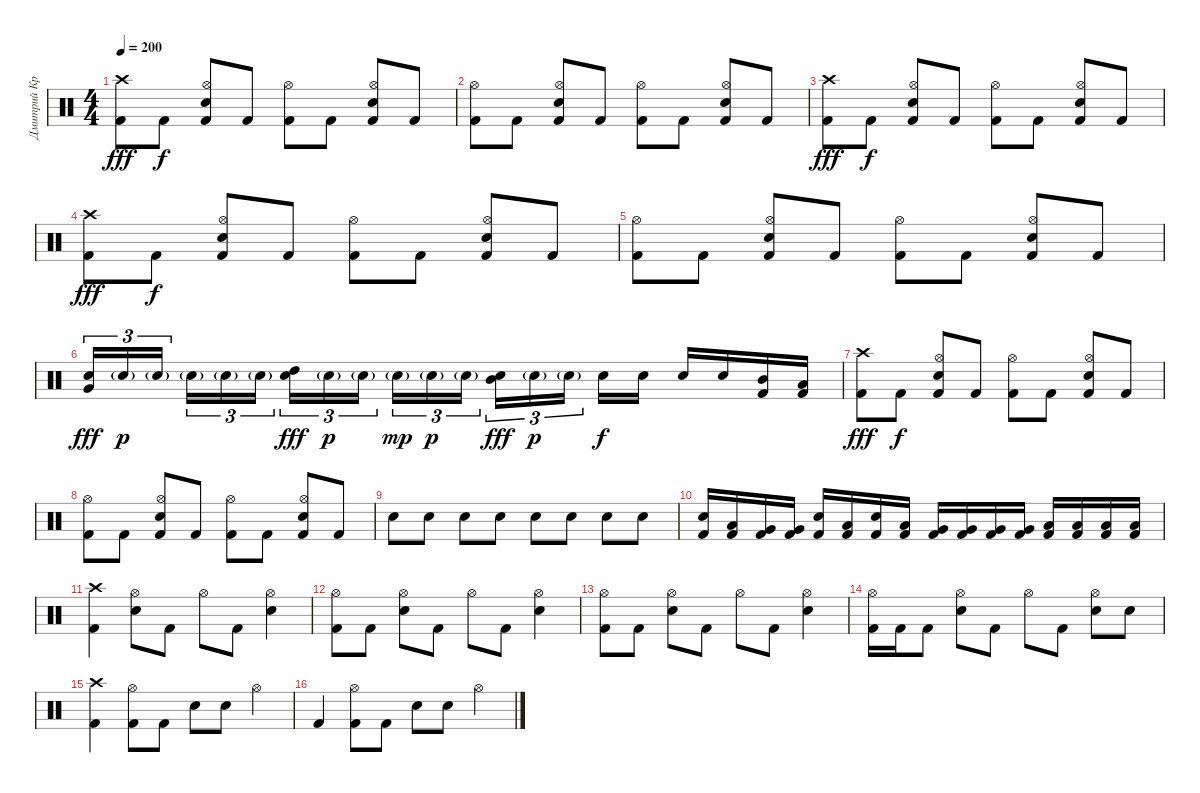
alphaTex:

\track ("Дмитрий Кривенков" "Дмитрий Кр") {instrument percussion}
\staff {score}
\articulation defaults
\ts (4 4)
\tempo 200
\clef neutral
\ks c
("Crash high (hit)" "Kick (hit) 2").8{dy fff} "Kick (hit) 2".8{dy f} ("Hi-Hat (open)" "Electric Snare (hit)" "Kick (hit) 2").8 "Kick (hit) 2".8 ("Hi-Hat (open)" "Kick (hit) 2").8 "Kick (hit) 2".8 ("Hi-Hat (open)" "Electric Snare (hit)" "Kick (hit) 2").8 "Kick (hit) 2".8 |
("Hi-Hat (open)" "Kick (hit) 2").8 "Kick (hit) 2".8 ("Hi-Hat (open)" "Electric Snare (hit)" "Kick (hit) 2").8 "Kick (hit) 2".8 ("Hi-Hat (open)" "Kick (hit) 2").8 "Kick (hit) 2".8 ("Hi-Hat (open)" "Electric Snare (hit)" "Kick (hit) 2").8 "Kick (hit) 2".8 |
("Crash high (hit)" "Kick (hit) 2").8{dy fff} "Kick (hit) 2".8{dy f} ("Hi-Hat (open)" "Electric Snare (hit)" "Kick (hit) 2").8 "Kick (hit) 2".8 ("Hi-Hat (open)" "Kick (hit) 2").8 "Kick (hit) 2".8 ("Hi-Hat (open)" "Electric Snare (hit)" "Kick (hit) 2").8 "Kick (hit) 2".8 |
("Crash high (hit)" "Kick (hit) 2").8{dy fff} "Kick (hit) 2".8{dy f} ("Hi-Hat (open)" "Electric Snare (hit)" "Kick (hit) 2").8 "Kick (hit) 2".8 ("Hi-Hat (open)" "Kick (hit) 2").8 "Kick (hit) 2".8 ("Hi-Hat (open)" "Electric Snare (hit)" "Kick (hit) 2").8 "Kick (hit) 2".8 |
("Hi-Hat (open)" "Kick (hit) 2").8 "Kick (hit) 2".8 ("Hi-Hat (open)" "Electric Snare (hit)" "Kick (hit) 2").8 "Kick (hit) 2".8 ("Hi-Hat (open)" "Kick (hit) 2").8 "Kick (hit) 2".8 ("Hi-Hat (open)" "Electric Snare (hit)" "Kick (hit) 2").8 "Kick (hit) 2".8 |
("Electric Snare (hit)" "Very Low Tom (hit)").16{tu (3 2) dy fff} "Electric Snare (hit)"{g}.16{tu (3 2) dy p} "Electric Snare (hit)"{g}.16{tu (3 2) beam splitsecondary} "Electric Snare (hit)"{g}.16{tu (3 2)} "Electric Snare (hit)"{g}.16{tu (3 2)} "Electric Snare (hit)"{g}.16{tu (3 2)} ("High Tom (hit)" "Electric Snare (hit)").16{tu (3 2) dy fff} "Electric Snare (hit)"{g}.16{tu (3 2) dy p} "Electric Snare (hit)"{g}.16{tu (3 2) beam splitsecondary} "Electric Snare (hit)"{g}.16{tu (3 2) dy mp} "Electric Snare (hit)"{g}.16{tu (3 2) dy p} "Electric Snare (hit)"{g}.16{tu (3 2)} ("Mid Tom (hit)" "Electric Snare (hit)").16{tu (3 2) dy fff} "Electric Snare (hit)"{g}.16{tu (3 2) dy p} "Electric Snare (hit)"{g}.16{tu (3 2) beam splitsecondary} "Electric Snare (hit)".16{dy f} "Electric Snare (hit)".16 "Electric Snare (hit)".16 "Electric Snare (hit)".16 ("Mid Tom (hit)" "Kick (hit) 2").16 ("Low Tom (hit)" "Kick (hit) 2").16 |
("Crash high (hit)" "Kick (hit) 2").8{dy fff} "Kick (hit) 2".8{dy f} ("Hi-Hat (open)" "Electric Snare (hit)" "Kick (hit) 2").8 "Kick (hit) 2".8 ("Hi-Hat (open)" "Kick (hit) 2").8 "Kick (hit) 2".8 ("Hi-Hat (open)" "Electric Snare (hit)" "Kick (hit) 2").8 "Kick (hit) 2".8 |
("Hi-Hat (open)" "Kick (hit) 2").8 "Kick (hit) 2".8 ("Hi-Hat (open)" "Electric Snare (hit)" "Kick (hit) 2").8 "Kick (hit) 2".8 ("Hi-Hat (open)" "Kick (hit) 2").8 "Kick (hit) 2".8 ("Hi-Hat (open)" "Electric Snare (hit)" "Kick (hit) 2").8 "Kick (hit) 2".8 |
"Electric Snare (hit)".8 "Electric Snare (hit)".8 "Electric Snare (hit)".8 "Electric Snare (hit)".8 "Electric Snare (hit)".8 "Electric Snare (hit)".8 "Electric Snare (hit)".8 "Electric Snare (hit)".8 |
("Electric Snare (hit)" "Kick (hit) 2").16 ("Low Tom (hit)" "Kick (hit) 2").16 ("Very Low Tom (hit)" "Kick (hit) 2").16 ("Very Low Tom (hit)" "Kick (hit) 2").16 ("Electric Snare (hit)" "Kick (hit) 2").16 ("Low Floor Tom (hit)" "Kick (hit) 2").16 ("Electric Snare (hit)" "Kick (hit) 2").16 ("Low Floor Tom (hit)" "Kick (hit) 2").16 ("Very Low Tom (hit)" "Kick (hit) 2").16 ("Very Low Tom (hit)" "Kick (hit) 2").16 ("Very Low Tom (hit)" "Kick (hit) 2").16 ("Very Low Tom (hit)" "Kick (hit) 2").16 ("Low Floor Tom (hit)" "Kick (hit) 2").16 ("Low Floor Tom (hit)" "Kick (hit) 2").16 ("Low Floor Tom (hit)" "Kick (hit) 2").16 ("Low Floor Tom (hit)" "Kick (hit) 2").16 |
("Crash high (hit)" "Kick (hit) 2").4 ("Hi-Hat (open)" "Electric Snare (hit)").8 "Kick (hit) 2".8 "Hi-Hat (open)".8 "Kick (hit) 2".8 ("Hi-Hat (open)" "Electric Snare (hit)").4 |
("Hi-Hat (open)" "Kick (hit) 2").8 "Kick (hit) 2".8 ("Hi-Hat (open)" "Electric Snare (hit)").8 "Kick (hit) 2".8 "Hi-Hat (open)".8 "Kick (hit) 2".8 ("Hi-Hat (open)" "Electric Snare (hit)").4 |
("Hi-Hat (open)" "Kick (hit) 2").8 "Kick (hit) 2".8 ("Hi-Hat (open)" "Electric Snare (hit)").8 "Kick (hit) 2".8 "Hi-Hat (open)".8 "Kick (hit) 2".8 ("Hi-Hat (open)" "Electric Snare (hit)").4 |
("Hi-Hat (open)" "Kick (hit) 2").16 "Kick (hit) 2".16 "Kick (hit) 2".8 ("Hi-Hat (open)" "Electric Snare (hit)").8 "Kick (hit) 2".8 "Hi-Hat (open)".8 "Kick (hit) 2".8 ("Hi-Hat (open)" "Electric Snare (hit)").8 "Electric Snare (hit)".8 |
("Crash high (hit)" "Kick (hit) 2").4 ("Hi-Hat (open)" "Kick (hit) 2").8 "Kick (hit) 2".8 "Electric Snare (hit)".8 "Electric Snare (hit)".8 "Hi-Hat (open)".4 |
"Kick (hit) 2".4 ("Hi-Hat (open)" "Kick (hit) 2").8 "Kick (hit) 2".8 "Electric Snare (hit)".8 "Electric Snare (hit)".8 "Hi-Hat (open)".4
